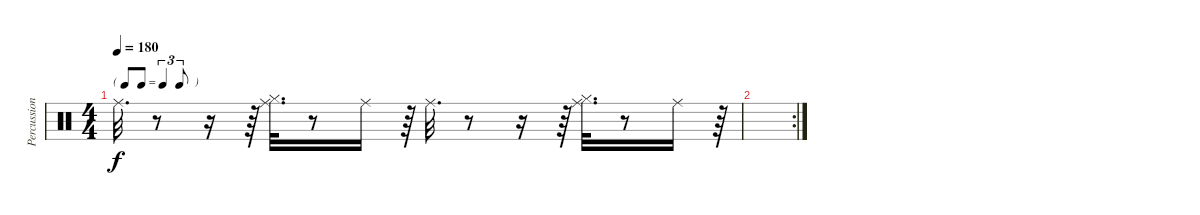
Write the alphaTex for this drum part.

\track ("Percussions" "Percussion") {instrument percussion}
\staff {score}
\articulation defaults
\ts (4 4)
\tf triplet8th
\tempo 180
\clef neutral
\ks c "Ride (middle)".32{d dy f}
r.8 r.16 r.64 ("Hi-Hat (closed)" "Ride (middle)").32{d} r.8 "Ride (middle)".16 r.64 "Ride (middle)".32{d} r.8 r.16 r.64 ("Hi-Hat (closed)" "Ride (middle)").32{d} r.8 "Ride (middle)".16 r.64 |
\rc 2
